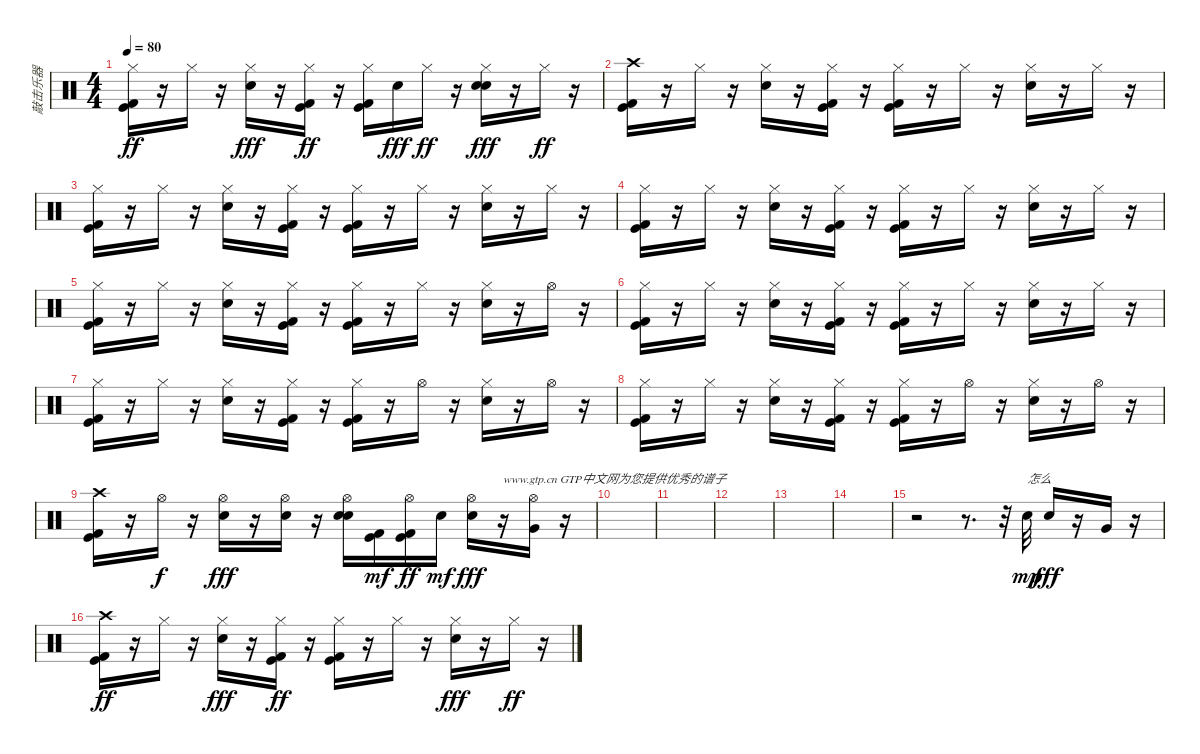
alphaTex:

\track ("敲击乐器" "敲击乐器") {instrument percussion}
\staff {score}
\articulation defaults
\ts (4 4)
\tempo 80
\clef neutral
\ks c
("Kick (hit)" "Kick (hit) 2" "Hi-Hat (closed)").16{dy ff} r.16 "Hi-Hat (closed)".16 r.16 ("Hi-Hat (closed)" "Electric Snare (hit)").16{dy fff} r.16 ("Kick (hit)" "Kick (hit) 2" "Hi-Hat (closed)").16{dy ff} r.16 ("Kick (hit)" "Kick (hit) 2" "Hi-Hat (closed)").16 "Electric Snare (hit)".16{dy fff} "Hi-Hat (closed)".16{dy ff} r.16 ("Electric Snare (hit)" "Hi-Hat (closed)" "Electric Snare (hit)").16{dy fff} r.16 "Hi-Hat (closed)".16{dy ff} r.16 |
("Crash high (hit)" "Kick (hit)" "Kick (hit) 2").16 r.16 "Hi-Hat (closed)".16 r.16 ("Electric Snare (hit)" "Hi-Hat (closed)").16 r.16 ("Kick (hit)" "Kick (hit) 2" "Hi-Hat (closed)").16 r.16 ("Kick (hit)" "Kick (hit) 2" "Hi-Hat (closed)").16 r.16 "Hi-Hat (closed)".16 r.16 ("Electric Snare (hit)" "Hi-Hat (closed)").16 r.16 "Hi-Hat (closed)".16 r.16 |
("Kick (hit) 2" "Kick (hit)" "Hi-Hat (closed)").16 r.16 "Hi-Hat (closed)".16 r.16 ("Electric Snare (hit)" "Hi-Hat (closed)").16 r.16 ("Kick (hit) 2" "Kick (hit)" "Hi-Hat (closed)").16 r.16 ("Kick (hit) 2" "Kick (hit)" "Hi-Hat (closed)").16 r.16 "Hi-Hat (closed)".16 r.16 ("Electric Snare (hit)" "Hi-Hat (closed)").16 r.16 "Hi-Hat (closed)".16 r.16 |
("Kick (hit)" "Kick (hit) 2" "Hi-Hat (closed)").16 r.16 "Hi-Hat (closed)".16 r.16 ("Electric Snare (hit)" "Hi-Hat (closed)").16 r.16 ("Kick (hit)" "Kick (hit) 2" "Hi-Hat (closed)").16 r.16 ("Kick (hit)" "Kick (hit) 2" "Hi-Hat (closed)").16 r.16 "Hi-Hat (closed)".16 r.16 ("Electric Snare (hit)" "Hi-Hat (closed)").16 r.16 "Hi-Hat (closed)".16 r.16 |
("Kick (hit) 2" "Kick (hit)" "Hi-Hat (closed)").16 r.16 "Hi-Hat (closed)".16 r.16 ("Electric Snare (hit)" "Hi-Hat (closed)").16 r.16 ("Kick (hit) 2" "Kick (hit)" "Hi-Hat (closed)").16 r.16 ("Kick (hit) 2" "Kick (hit)" "Hi-Hat (closed)").16 r.16 "Hi-Hat (closed)".16 r.16 ("Electric Snare (hit)" "Hi-Hat (closed)").16 r.16 "Hi-Hat (open)".16 r.16 |
("Kick (hit)" "Kick (hit) 2" "Hi-Hat (closed)").16 r.16 "Hi-Hat (closed)".16 r.16 ("Electric Snare (hit)" "Hi-Hat (closed)").16 r.16 ("Kick (hit)" "Kick (hit) 2" "Hi-Hat (closed)").16 r.16 ("Kick (hit)" "Kick (hit) 2" "Hi-Hat (closed)").16 r.16 "Hi-Hat (closed)".16 r.16 ("Electric Snare (hit)" "Hi-Hat (closed)").16 r.16 "Hi-Hat (closed)".16 r.16 |
("Kick (hit) 2" "Kick (hit)" "Hi-Hat (closed)").16 r.16 "Hi-Hat (closed)".16 r.16 ("Electric Snare (hit)" "Hi-Hat (closed)").16 r.16 ("Kick (hit) 2" "Kick (hit)" "Hi-Hat (closed)").16 r.16 ("Kick (hit) 2" "Kick (hit)" "Hi-Hat (closed)").16 r.16 "Hi-Hat (open)".16 r.16 ("Electric Snare (hit)" "Hi-Hat (closed)").16 r.16 "Hi-Hat (open)".16 r.16 |
("Kick (hit) 2" "Kick (hit)" "Hi-Hat (closed)").16 r.16 "Hi-Hat (closed)".16 r.16 ("Electric Snare (hit)" "Hi-Hat (closed)").16 r.16 ("Kick (hit) 2" "Kick (hit)" "Hi-Hat (closed)").16 r.16 ("Kick (hit) 2" "Kick (hit)" "Hi-Hat (closed)").16 r.16 "Hi-Hat (open)".16 r.16 ("Electric Snare (hit)" "Hi-Hat (closed)").16 r.16 "Hi-Hat (open)".16 r.16 |
("Kick (hit) 2" "Kick (hit)" "Crash high (hit)").16 r.16 "Hi-Hat (open)".16{dy f} r.16 ("Electric Snare (hit)" "Hi-Hat (open)").16{dy fff} r.16 ("Hi-Hat (open)" "Electric Snare (hit)").16 r.16 ("Hi-Hat (open)" "Electric Snare (hit)" "Electric Snare (hit)").16 ("Kick (hit)" "Kick (hit) 2").16{dy mf} ("Kick (hit)" "Kick (hit) 2" "Hi-Hat (open)").16{dy ff} "Electric Snare (hit)".16{dy mf} ("Electric Snare (hit)" "Hi-Hat (open)").16{dy fff} r.16{txt "www.gtp.cn GTP中文网为您提供优秀的谱子"} ("Hi-Hat (open)" "Very Low Tom (hit)").16 r.16 |
|
|
|
|
|
r.2 r.8{d} r.32 "Electric Snare (hit)".32{txt "怎么" dy mp} "Electric Snare (hit)".16{dy fff} r.16 "Very Low Tom (hit)".16 r.16 |
("Crash high (hit)" "Kick (hit)" "Kick (hit) 2").16{dy ff} r.16 "Hi-Hat (closed)".16 r.16 ("Hi-Hat (closed)" "Electric Snare (hit)").16{dy fff} r.16 ("Kick (hit)" "Kick (hit) 2" "Hi-Hat (closed)").16{dy ff} r.16 ("Kick (hit)" "Kick (hit) 2" "Hi-Hat (closed)").16 r.16 "Hi-Hat (closed)".16 r.16 ("Hi-Hat (closed)" "Electric Snare (hit)").16{dy fff} r.16 "Hi-Hat (closed)".16{dy ff} r.16
